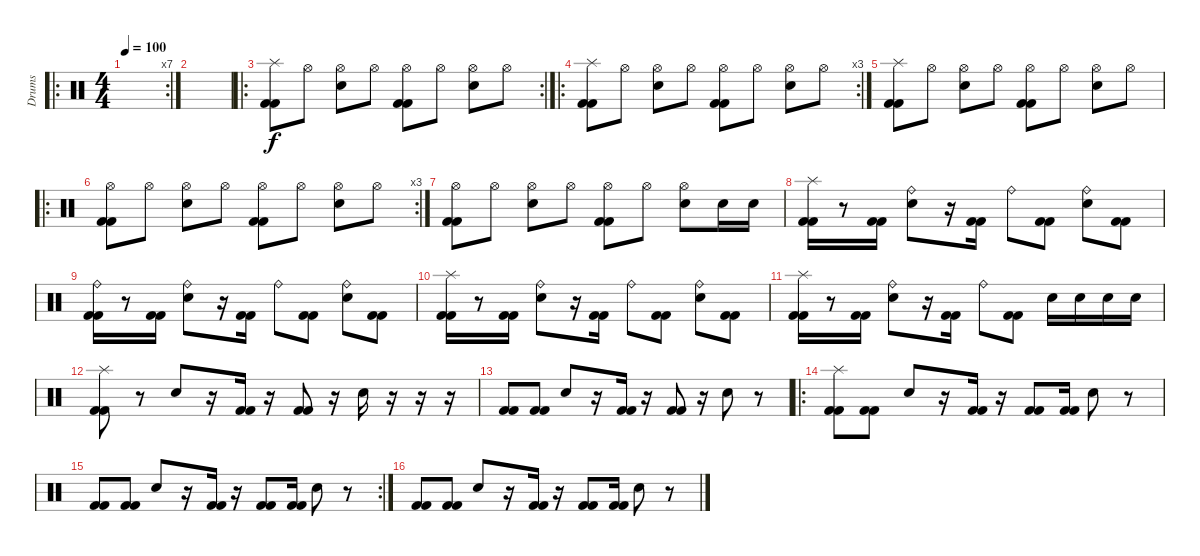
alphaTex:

\track ("Drums" "Drums") {instrument percussion}
\staff {score}
\articulation defaults
\ro
\rc 7
\ts (4 4)
\tempo 100
\clef neutral
\ks c
|
|
\ro
\rc 2
("Splash (hit)" "Kick (hit) 2" "Kick (hit) 2").8 "Hi-Hat (open)".8 ("Hi-Hat (open)" "Electric Snare (hit)").8 "Hi-Hat (open)".8 ("Hi-Hat (open)" "Kick (hit) 2" "Kick (hit) 2").8 "Hi-Hat (open)".8 ("Hi-Hat (open)" "Electric Snare (hit)").8 "Hi-Hat (open)".8 |
\ro
\rc 3
("Splash (hit)" "Kick (hit) 2" "Kick (hit) 2").8 "Hi-Hat (open)".8 ("Hi-Hat (open)" "Electric Snare (hit)").8 "Hi-Hat (open)".8 ("Hi-Hat (open)" "Kick (hit) 2" "Kick (hit) 2").8 "Hi-Hat (open)".8 ("Hi-Hat (open)" "Electric Snare (hit)").8 "Hi-Hat (open)".8 |
("Splash (hit)" "Kick (hit) 2" "Kick (hit) 2").8 "Hi-Hat (open)".8 ("Hi-Hat (open)" "Electric Snare (hit)").8 "Hi-Hat (open)".8 ("Hi-Hat (open)" "Kick (hit) 2" "Kick (hit) 2").8 "Hi-Hat (open)".8 ("Hi-Hat (open)" "Electric Snare (hit)").8 "Hi-Hat (open)".8 |
\ro
\rc 3
("Hi-Hat (open)" "Kick (hit) 2" "Kick (hit) 2").8 "Hi-Hat (open)".8 ("Hi-Hat (open)" "Electric Snare (hit)").8 "Hi-Hat (open)".8 ("Hi-Hat (open)" "Kick (hit) 2" "Kick (hit) 2").8 "Hi-Hat (open)".8 ("Hi-Hat (open)" "Electric Snare (hit)").8 "Hi-Hat (open)".8 |
("Hi-Hat (open)" "Kick (hit) 2" "Kick (hit) 2").8 "Hi-Hat (open)".8 ("Hi-Hat (open)" "Electric Snare (hit)").8 "Hi-Hat (open)".8 ("Hi-Hat (open)" "Kick (hit) 2" "Kick (hit) 2").8 "Hi-Hat (open)".8 ("Hi-Hat (open)" "Electric Snare (hit)").8 "Electric Snare (hit)".16 "Electric Snare (hit)".16 |
("Splash (hit)" "Kick (hit) 2" "Kick (hit) 2").16 r.8 ("Kick (hit) 2" "Kick (hit) 2").16 ("Ride (bell)" "Electric Snare (hit)").8 r.16 ("Kick (hit) 2" "Kick (hit) 2").16 "Ride (bell)".8 ("Kick (hit) 2" "Kick (hit) 2").8 ("Ride (bell)" "Electric Snare (hit)").8 ("Kick (hit) 2" "Kick (hit) 2").8 |
("Ride (bell)" "Kick (hit) 2" "Kick (hit) 2").16 r.8 ("Kick (hit) 2" "Kick (hit) 2").16 ("Ride (bell)" "Electric Snare (hit)").8 r.16 ("Kick (hit) 2" "Kick (hit) 2").16 "Ride (bell)".8 ("Kick (hit) 2" "Kick (hit) 2").8 ("Ride (bell)" "Electric Snare (hit)").8 ("Kick (hit) 2" "Kick (hit) 2").8 |
("Splash (hit)" "Kick (hit) 2" "Kick (hit) 2").16 r.8 ("Kick (hit) 2" "Kick (hit) 2").16 ("Ride (bell)" "Electric Snare (hit)").8 r.16 ("Kick (hit) 2" "Kick (hit) 2").16 "Ride (bell)".8 ("Kick (hit) 2" "Kick (hit) 2").8 ("Ride (bell)" "Electric Snare (hit)").8 ("Kick (hit) 2" "Kick (hit) 2").8 |
("Splash (hit)" "Kick (hit) 2" "Kick (hit) 2").16 r.8 ("Kick (hit) 2" "Kick (hit) 2").16 ("Ride (bell)" "Electric Snare (hit)").8 r.16 ("Kick (hit) 2" "Kick (hit) 2").16 "Ride (bell)".8 ("Kick (hit) 2" "Kick (hit) 2").8 "Electric Snare (hit)".16 "Electric Snare (hit)".16 "Electric Snare (hit)".16 "Electric Snare (hit)".16 |
("Splash (hit)" "Kick (hit) 2" "Kick (hit) 2").8 r.8 "Electric Snare (hit)".8 r.16 ("Kick (hit) 2" "Kick (hit) 2").16 r.16 ("Kick (hit) 2" "Kick (hit) 2").8 r.16 "Electric Snare (hit)".16 r.16 r.16 r.16 |
("Kick (hit) 2" "Kick (hit) 2").8 ("Kick (hit) 2" "Kick (hit) 2").8 "Electric Snare (hit)".8 r.16 ("Kick (hit) 2" "Kick (hit) 2").16 r.16 ("Kick (hit) 2" "Kick (hit) 2").8 r.16 "Electric Snare (hit)".8 r.8 |
\ro
("Splash (hit)" "Kick (hit) 2" "Kick (hit) 2").8 ("Kick (hit) 2" "Kick (hit) 2").8 "Electric Snare (hit)".8 r.16 ("Kick (hit) 2" "Kick (hit) 2").16 r.16 ("Kick (hit) 2" "Kick (hit) 2").8 ("Kick (hit) 2" "Kick (hit) 2").16 "Electric Snare (hit)".8 r.8 |
\rc 2
("Kick (hit) 2" "Kick (hit) 2").8 ("Kick (hit) 2" "Kick (hit) 2").8 "Electric Snare (hit)".8 r.16 ("Kick (hit) 2" "Kick (hit) 2").16 r.16 ("Kick (hit) 2" "Kick (hit) 2").8 ("Kick (hit) 2" "Kick (hit) 2").16 "Electric Snare (hit)".8 r.8 |
("Kick (hit) 2" "Kick (hit) 2").8 ("Kick (hit) 2" "Kick (hit) 2").8 "Electric Snare (hit)".8 r.16 ("Kick (hit) 2" "Kick (hit) 2").16 r.16 ("Kick (hit) 2" "Kick (hit) 2").8 ("Kick (hit) 2" "Kick (hit) 2").16 "Electric Snare (hit)".8 r.8
